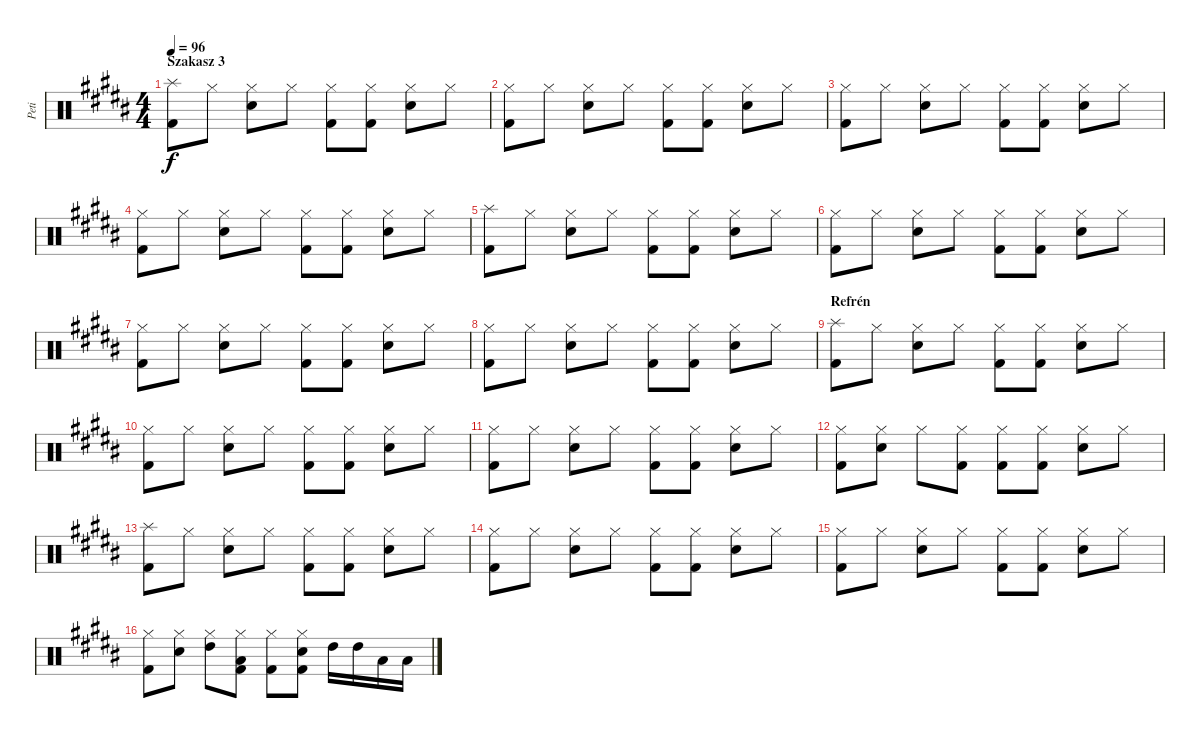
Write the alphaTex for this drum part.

\track ("Peti" "Peti") {instrument percussion}
\staff {score}
\articulation defaults
\ts (4 4)
\section ("" "Szakasz 3")
\tempo 96
\clef neutral
\ks g#minor
("Splash (hit)" "Kick (hit) 2").8{dy f} "Hi-Hat (closed)".8 ("Hi-Hat (closed)" "Snare (hit) 2").8 "Hi-Hat (closed)".8 ("Hi-Hat (closed)" "Kick (hit) 2").8 ("Hi-Hat (closed)" "Kick (hit) 2").8 ("Hi-Hat (closed)" "Snare (hit) 2").8 "Hi-Hat (closed)".8 |
("Hi-Hat (closed)" "Kick (hit) 2").8 "Hi-Hat (closed)".8 ("Hi-Hat (closed)" "Snare (hit) 2").8 "Hi-Hat (closed)".8 ("Hi-Hat (closed)" "Kick (hit) 2").8 ("Hi-Hat (closed)" "Kick (hit) 2").8 ("Hi-Hat (closed)" "Snare (hit) 2").8 "Hi-Hat (closed)".8 |
("Hi-Hat (closed)" "Kick (hit) 2").8 "Hi-Hat (closed)".8 ("Hi-Hat (closed)" "Snare (hit) 2").8 "Hi-Hat (closed)".8 ("Hi-Hat (closed)" "Kick (hit) 2").8 ("Hi-Hat (closed)" "Kick (hit) 2").8 ("Hi-Hat (closed)" "Snare (hit) 2").8 "Hi-Hat (closed)".8 |
("Hi-Hat (closed)" "Kick (hit) 2").8 "Hi-Hat (closed)".8 ("Hi-Hat (closed)" "Snare (hit) 2").8 "Hi-Hat (closed)".8 ("Hi-Hat (closed)" "Kick (hit) 2").8 ("Hi-Hat (closed)" "Kick (hit) 2").8 ("Hi-Hat (closed)" "Snare (hit) 2").8 "Hi-Hat (closed)".8 |
("Splash (hit)" "Kick (hit) 2").8 "Hi-Hat (closed)".8 ("Hi-Hat (closed)" "Snare (hit) 2").8 "Hi-Hat (closed)".8 ("Hi-Hat (closed)" "Kick (hit) 2").8 ("Hi-Hat (closed)" "Kick (hit) 2").8 ("Hi-Hat (closed)" "Snare (hit) 2").8 "Hi-Hat (closed)".8 |
("Hi-Hat (closed)" "Kick (hit) 2").8 "Hi-Hat (closed)".8 ("Hi-Hat (closed)" "Snare (hit) 2").8 "Hi-Hat (closed)".8 ("Hi-Hat (closed)" "Kick (hit) 2").8 ("Hi-Hat (closed)" "Kick (hit) 2").8 ("Hi-Hat (closed)" "Snare (hit) 2").8 "Hi-Hat (closed)".8 |
("Hi-Hat (closed)" "Kick (hit) 2").8 "Hi-Hat (closed)".8 ("Hi-Hat (closed)" "Snare (hit) 2").8 "Hi-Hat (closed)".8 ("Hi-Hat (closed)" "Kick (hit) 2").8 ("Hi-Hat (closed)" "Kick (hit) 2").8 ("Hi-Hat (closed)" "Snare (hit) 2").8 "Hi-Hat (closed)".8 |
("Hi-Hat (closed)" "Kick (hit) 2").8 "Hi-Hat (closed)".8 ("Hi-Hat (closed)" "Snare (hit) 2").8 "Hi-Hat (closed)".8 ("Hi-Hat (closed)" "Kick (hit) 2").8 ("Hi-Hat (closed)" "Kick (hit) 2").8 ("Hi-Hat (closed)" "Snare (hit) 2").8 "Hi-Hat (closed)".8 |
\section ("" "Refrén")
("Splash (hit)" "Kick (hit) 2").8 "Hi-Hat (closed)".8 ("Hi-Hat (closed)" "Snare (hit) 2").8 "Hi-Hat (closed)".8 ("Hi-Hat (closed)" "Kick (hit) 2").8 ("Hi-Hat (closed)" "Kick (hit) 2").8 ("Hi-Hat (closed)" "Snare (hit) 2").8 "Hi-Hat (closed)".8 |
("Hi-Hat (closed)" "Kick (hit) 2").8 "Hi-Hat (closed)".8 ("Hi-Hat (closed)" "Snare (hit) 2").8 "Hi-Hat (closed)".8 ("Hi-Hat (closed)" "Kick (hit) 2").8 ("Hi-Hat (closed)" "Kick (hit) 2").8 ("Hi-Hat (closed)" "Snare (hit) 2").8 "Hi-Hat (closed)".8 |
("Hi-Hat (closed)" "Kick (hit) 2").8 "Hi-Hat (closed)".8 ("Hi-Hat (closed)" "Snare (hit) 2").8 "Hi-Hat (closed)".8 ("Hi-Hat (closed)" "Kick (hit) 2").8 ("Hi-Hat (closed)" "Kick (hit) 2").8 ("Hi-Hat (closed)" "Snare (hit) 2").8 "Hi-Hat (closed)".8 |
("Hi-Hat (closed)" "Kick (hit) 2").8 ("Hi-Hat (closed)" "Snare (hit) 2").8 "Hi-Hat (closed)".8 ("Hi-Hat (closed)" "Kick (hit) 2").8 ("Hi-Hat (closed)" "Kick (hit) 2").8 ("Hi-Hat (closed)" "Kick (hit) 2").8 ("Hi-Hat (closed)" "Snare (hit) 2").8 "Hi-Hat (closed)".8 |
("Splash (hit)" "Kick (hit) 2").8 "Hi-Hat (closed)".8 ("Hi-Hat (closed)" "Snare (hit) 2").8 "Hi-Hat (closed)".8 ("Hi-Hat (closed)" "Kick (hit) 2").8 ("Hi-Hat (closed)" "Kick (hit) 2").8 ("Hi-Hat (closed)" "Snare (hit) 2").8 "Hi-Hat (closed)".8 |
("Hi-Hat (closed)" "Kick (hit) 2").8 "Hi-Hat (closed)".8 ("Hi-Hat (closed)" "Snare (hit) 2").8 "Hi-Hat (closed)".8 ("Hi-Hat (closed)" "Kick (hit) 2").8 ("Hi-Hat (closed)" "Kick (hit) 2").8 ("Hi-Hat (closed)" "Snare (hit) 2").8 "Hi-Hat (closed)".8 |
("Hi-Hat (closed)" "Kick (hit) 2").8 "Hi-Hat (closed)".8 ("Hi-Hat (closed)" "Snare (hit) 2").8 "Hi-Hat (closed)".8 ("Hi-Hat (closed)" "Kick (hit) 2").8 ("Hi-Hat (closed)" "Kick (hit) 2").8 ("Hi-Hat (closed)" "Snare (hit) 2").8 "Hi-Hat (closed)".8 |
("Hi-Hat (closed)" "Kick (hit) 2").8 ("Hi-Hat (closed)" "Snare (hit) 2").8 ("Hi-Hat (closed)" "High Tom (hit)").8 ("Hi-Hat (closed)" "Low Tom (hit)" "Kick (hit) 2").8 ("Hi-Hat (closed)" "Kick (hit) 2").8 ("Hi-Hat (closed)" "Snare (hit) 2" "Kick (hit) 2").8 "High Tom (hit)".16 "High Tom (hit)".16 "Low Tom (hit)".16 "Low Tom (hit)".16
